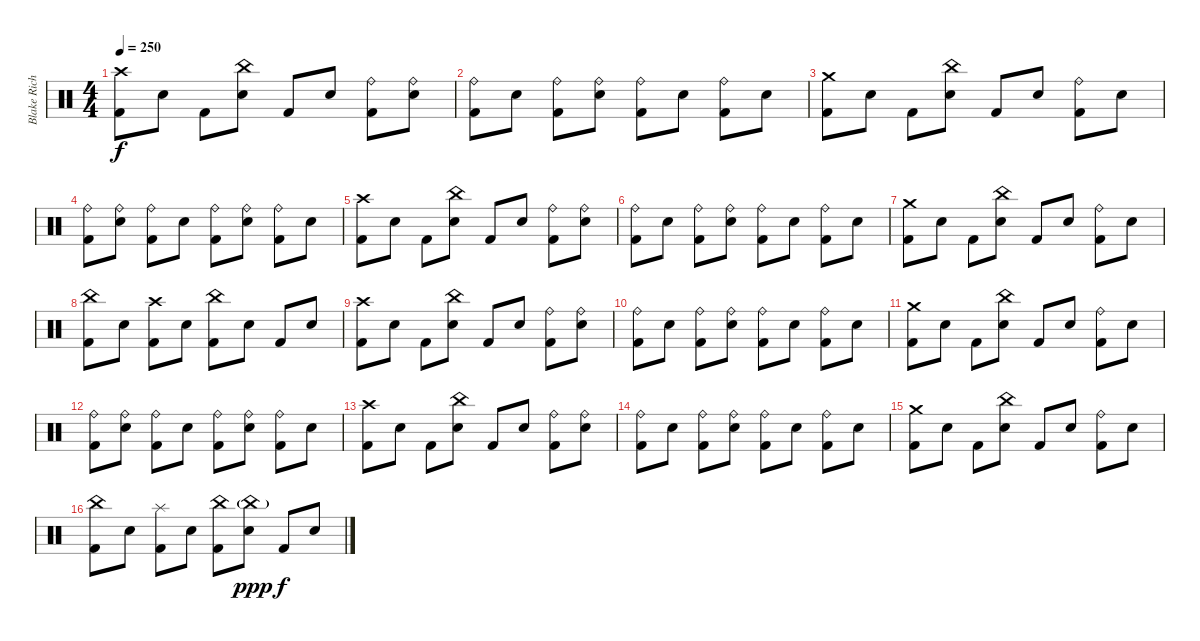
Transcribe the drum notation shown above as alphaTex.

\track ("Blake Richardson - Drums" "Blake Rich") {instrument percussion}
\staff {score}
\articulation defaults
\ts (4 4)
\tempo 250
\clef neutral
\ks c
("Crash high (hit)" "Kick (hit) 2").8{dy f} "Electric Snare (hit)".8 "Kick (hit) 2".8 ("China (hit)" "Electric Snare (hit)").8 "Kick (hit) 2".8 "Electric Snare (hit)".8 ("Ride (bell)" "Kick (hit) 2").8 ("Ride (bell)" "Electric Snare (hit)").8 |
("Ride (bell)" "Kick (hit) 2").8 "Electric Snare (hit)".8 ("Ride (bell)" "Kick (hit) 2").8 ("Ride (bell)" "Electric Snare (hit)").8 ("Ride (bell)" "Kick (hit) 2").8 "Electric Snare (hit)".8 ("Ride (bell)" "Kick (hit) 2").8 "Electric Snare (hit)".8 |
("Crash medium (hit)" "Kick (hit) 2").8 "Electric Snare (hit)".8 "Kick (hit) 2".8 ("China (hit)" "Electric Snare (hit)").8 "Kick (hit) 2".8 "Electric Snare (hit)".8 ("Ride (bell)" "Kick (hit) 2").8 "Electric Snare (hit)".8 |
("Ride (bell)" "Kick (hit) 2").8 ("Ride (bell)" "Electric Snare (hit)").8 ("Ride (bell)" "Kick (hit) 2").8 "Electric Snare (hit)".8 ("Ride (bell)" "Kick (hit) 2").8 ("Ride (bell)" "Electric Snare (hit)").8 ("Ride (bell)" "Kick (hit) 2").8 "Electric Snare (hit)".8 |
("Crash high (hit)" "Kick (hit) 2").8 "Electric Snare (hit)".8 "Kick (hit) 2".8 ("China (hit)" "Electric Snare (hit)").8 "Kick (hit) 2".8 "Electric Snare (hit)".8 ("Ride (bell)" "Kick (hit) 2").8 ("Ride (bell)" "Electric Snare (hit)").8 |
("Ride (bell)" "Kick (hit) 2").8 "Electric Snare (hit)".8 ("Ride (bell)" "Kick (hit) 2").8 ("Ride (bell)" "Electric Snare (hit)").8 ("Ride (bell)" "Kick (hit) 2").8 "Electric Snare (hit)".8 ("Ride (bell)" "Kick (hit) 2").8 "Electric Snare (hit)".8 |
("Crash medium (hit)" "Kick (hit) 2").8 "Electric Snare (hit)".8 "Kick (hit) 2".8 ("China (hit)" "Electric Snare (hit)").8 "Kick (hit) 2".8 "Electric Snare (hit)".8 ("Ride (bell)" "Kick (hit) 2").8 "Electric Snare (hit)".8 |
("China (hit)" "Kick (hit) 2").8 "Electric Snare (hit)".8 ("Crash high (hit)" "Kick (hit) 2").8 "Electric Snare (hit)".8 ("China (hit)" "Kick (hit) 2").8 "Electric Snare (hit)".8 "Kick (hit) 2".8 "Electric Snare (hit)".8 |
("Crash high (hit)" "Kick (hit) 2").8 "Electric Snare (hit)".8 "Kick (hit) 2".8 ("China (hit)" "Electric Snare (hit)").8 "Kick (hit) 2".8 "Electric Snare (hit)".8 ("Ride (bell)" "Kick (hit) 2").8 ("Ride (bell)" "Electric Snare (hit)").8 |
("Ride (bell)" "Kick (hit) 2").8 "Electric Snare (hit)".8 ("Ride (bell)" "Kick (hit) 2").8 ("Ride (bell)" "Electric Snare (hit)").8 ("Ride (bell)" "Kick (hit) 2").8 "Electric Snare (hit)".8 ("Ride (bell)" "Kick (hit) 2").8 "Electric Snare (hit)".8 |
("Crash medium (hit)" "Kick (hit) 2").8 "Electric Snare (hit)".8 "Kick (hit) 2".8 ("China (hit)" "Electric Snare (hit)").8 "Kick (hit) 2".8 "Electric Snare (hit)".8 ("Ride (bell)" "Kick (hit) 2").8 "Electric Snare (hit)".8 |
("Ride (bell)" "Kick (hit) 2").8 ("Ride (bell)" "Electric Snare (hit)").8 ("Ride (bell)" "Kick (hit) 2").8 "Electric Snare (hit)".8 ("Ride (bell)" "Kick (hit) 2").8 ("Ride (bell)" "Electric Snare (hit)").8 ("Ride (bell)" "Kick (hit) 2").8 "Electric Snare (hit)".8 |
("Crash high (hit)" "Kick (hit) 2").8 "Electric Snare (hit)".8 "Kick (hit) 2".8 ("China (hit)" "Electric Snare (hit)").8 "Kick (hit) 2".8 "Electric Snare (hit)".8 ("Ride (bell)" "Kick (hit) 2").8 ("Ride (bell)" "Electric Snare (hit)").8 |
("Ride (bell)" "Kick (hit) 2").8 "Electric Snare (hit)".8 ("Ride (bell)" "Kick (hit) 2").8 ("Ride (bell)" "Electric Snare (hit)").8 ("Ride (bell)" "Kick (hit) 2").8 "Electric Snare (hit)".8 ("Ride (bell)" "Kick (hit) 2").8 "Electric Snare (hit)".8 |
("Crash medium (hit)" "Kick (hit) 2").8 "Electric Snare (hit)".8 "Kick (hit) 2".8 ("China (hit)" "Electric Snare (hit)").8 "Kick (hit) 2".8 "Electric Snare (hit)".8 ("Ride (bell)" "Kick (hit) 2").8 "Electric Snare (hit)".8 |
("China (hit)" "Kick (hit) 2").8 "Electric Snare (hit)".8 ("Splash (hit)" "Kick (hit) 2").8 "Electric Snare (hit)".8 ("China (hit)" "Kick (hit) 2").8 ("China (hit)"{g} "Electric Snare (hit)").8{dy ppp} "Kick (hit) 2".8{dy f} "Electric Snare (hit)".8
